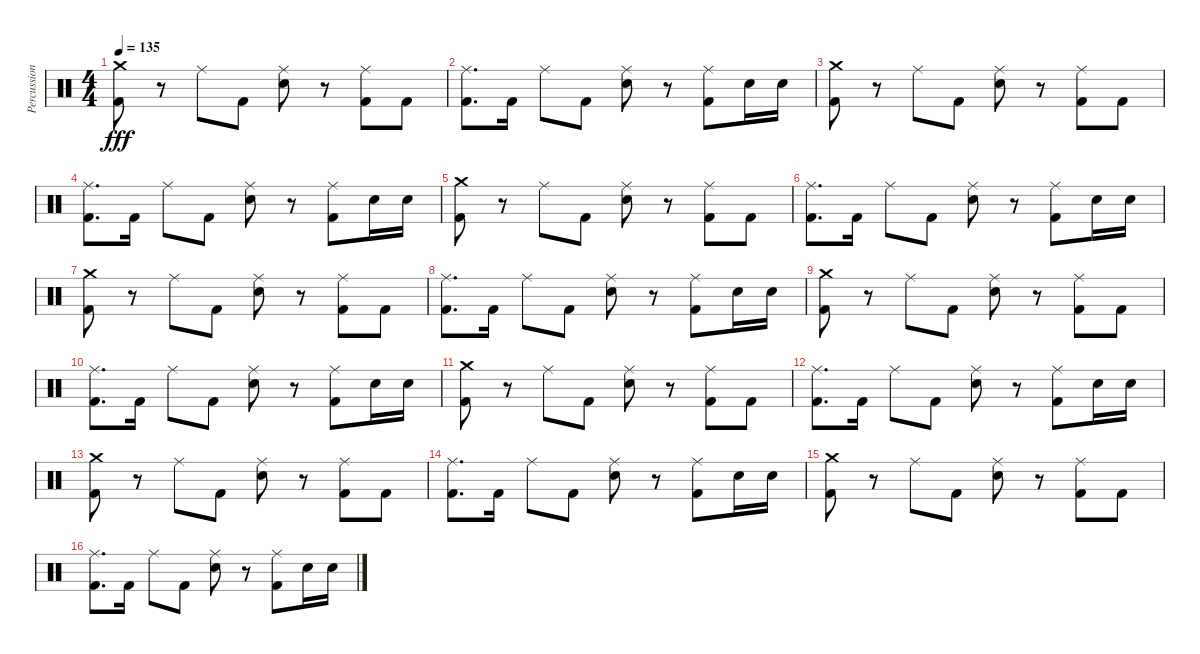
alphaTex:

\track ("Percussion" "Percussion") {instrument percussion}
\staff {score}
\articulation defaults
\ts (4 4)
\tempo 135
\clef neutral
\ks c
("Crash medium (hit)" "Kick (hit) 2").8{dy fff} r.8 "Ride (middle)".8 "Kick (hit) 2".8 ("Ride (middle)" "Electric Snare (hit)").8 r.8 ("Ride (middle)" "Kick (hit) 2").8 "Kick (hit) 2".8 |
("Ride (middle)" "Kick (hit) 2").8{d} "Kick (hit) 2".16 "Ride (middle)".8 "Kick (hit) 2".8 ("Ride (middle)" "Electric Snare (hit)").8 r.8 ("Ride (middle)" "Kick (hit) 2").8 "Electric Snare (hit)".16 "Electric Snare (hit)".16 |
("Crash medium (hit)" "Kick (hit) 2").8 r.8 "Ride (middle)".8 "Kick (hit) 2".8 ("Ride (middle)" "Electric Snare (hit)").8 r.8 ("Ride (middle)" "Kick (hit) 2").8 "Kick (hit) 2".8 |
("Ride (middle)" "Kick (hit) 2").8{d} "Kick (hit) 2".16 "Ride (middle)".8 "Kick (hit) 2".8 ("Ride (middle)" "Electric Snare (hit)").8 r.8 ("Ride (middle)" "Kick (hit) 2").8 "Electric Snare (hit)".16 "Electric Snare (hit)".16 |
("Crash medium (hit)" "Kick (hit) 2").8 r.8 "Ride (middle)".8 "Kick (hit) 2".8 ("Ride (middle)" "Electric Snare (hit)").8 r.8 ("Ride (middle)" "Kick (hit) 2").8 "Kick (hit) 2".8 |
("Ride (middle)" "Kick (hit) 2").8{d} "Kick (hit) 2".16 "Ride (middle)".8 "Kick (hit) 2".8 ("Ride (middle)" "Electric Snare (hit)").8 r.8 ("Ride (middle)" "Kick (hit) 2").8 "Electric Snare (hit)".16 "Electric Snare (hit)".16 |
("Crash medium (hit)" "Kick (hit) 2").8 r.8 "Ride (middle)".8 "Kick (hit) 2".8 ("Ride (middle)" "Electric Snare (hit)").8 r.8 ("Ride (middle)" "Kick (hit) 2").8 "Kick (hit) 2".8 |
("Ride (middle)" "Kick (hit) 2").8{d} "Kick (hit) 2".16 "Ride (middle)".8 "Kick (hit) 2".8 ("Ride (middle)" "Electric Snare (hit)").8 r.8 ("Ride (middle)" "Kick (hit) 2").8 "Electric Snare (hit)".16 "Electric Snare (hit)".16 |
("Crash medium (hit)" "Kick (hit) 2").8 r.8 "Ride (middle)".8 "Kick (hit) 2".8 ("Ride (middle)" "Electric Snare (hit)").8 r.8 ("Ride (middle)" "Kick (hit) 2").8 "Kick (hit) 2".8 |
("Ride (middle)" "Kick (hit) 2").8{d} "Kick (hit) 2".16 "Ride (middle)".8 "Kick (hit) 2".8 ("Ride (middle)" "Electric Snare (hit)").8 r.8 ("Ride (middle)" "Kick (hit) 2").8 "Electric Snare (hit)".16 "Electric Snare (hit)".16 |
("Crash medium (hit)" "Kick (hit) 2").8 r.8 "Ride (middle)".8 "Kick (hit) 2".8 ("Ride (middle)" "Electric Snare (hit)").8 r.8 ("Ride (middle)" "Kick (hit) 2").8 "Kick (hit) 2".8 |
("Ride (middle)" "Kick (hit) 2").8{d} "Kick (hit) 2".16 "Ride (middle)".8 "Kick (hit) 2".8 ("Ride (middle)" "Electric Snare (hit)").8 r.8 ("Ride (middle)" "Kick (hit) 2").8 "Electric Snare (hit)".16 "Electric Snare (hit)".16 |
("Crash medium (hit)" "Kick (hit) 2").8 r.8 "Ride (middle)".8 "Kick (hit) 2".8 ("Ride (middle)" "Electric Snare (hit)").8 r.8 ("Ride (middle)" "Kick (hit) 2").8 "Kick (hit) 2".8 |
("Ride (middle)" "Kick (hit) 2").8{d} "Kick (hit) 2".16 "Ride (middle)".8 "Kick (hit) 2".8 ("Ride (middle)" "Electric Snare (hit)").8 r.8 ("Ride (middle)" "Kick (hit) 2").8 "Electric Snare (hit)".16 "Electric Snare (hit)".16 |
("Crash medium (hit)" "Kick (hit) 2").8 r.8 "Ride (middle)".8 "Kick (hit) 2".8 ("Ride (middle)" "Electric Snare (hit)").8 r.8 ("Ride (middle)" "Kick (hit) 2").8 "Kick (hit) 2".8 |
("Ride (middle)" "Kick (hit) 2").8{d} "Kick (hit) 2".16 "Ride (middle)".8 "Kick (hit) 2".8 ("Ride (middle)" "Electric Snare (hit)").8 r.8 ("Ride (middle)" "Kick (hit) 2").8 "Electric Snare (hit)".16 "Electric Snare (hit)".16
